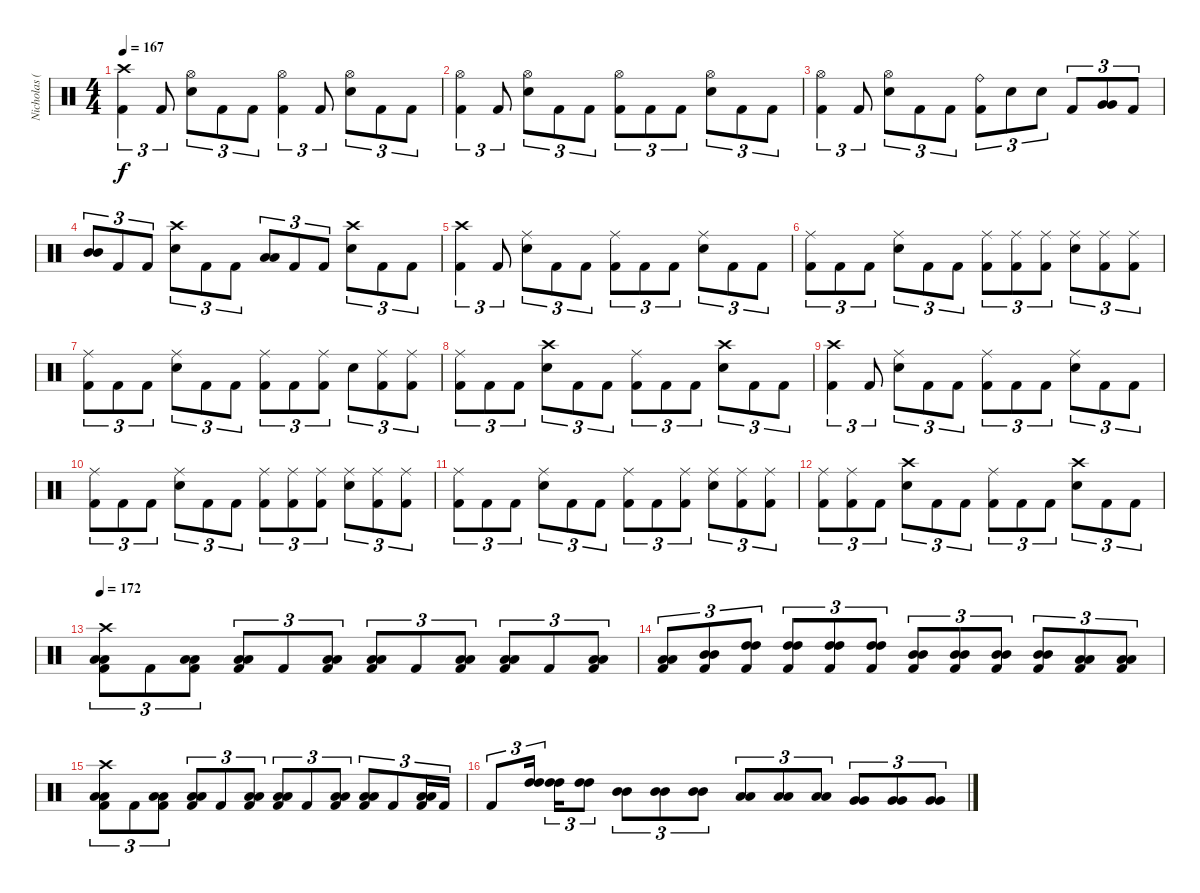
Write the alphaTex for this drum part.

\track ("Nicholas (Drums)" "Nicholas (") {instrument percussion}
\staff {score}
\articulation defaults
\ts (4 4)
\tempo 167
\clef neutral
\ks c
("Crash high (hit)" "Kick (hit) 2").4{tu (3 2) dy f} "Kick (hit) 2".8{tu (3 2)} ("Hi-Hat (open)" "Electric Snare (hit)").8{tu (3 2)} "Kick (hit) 2".8{tu (3 2)} "Kick (hit) 2".8{tu (3 2)} ("Hi-Hat (open)" "Kick (hit) 2").4{tu (3 2)} "Kick (hit) 2".8{tu (3 2)} ("Hi-Hat (open)" "Electric Snare (hit)").8{tu (3 2)} "Kick (hit) 2".8{tu (3 2)} "Kick (hit) 2".8{tu (3 2)} |
("Hi-Hat (open)" "Kick (hit) 2").4{tu (3 2)} "Kick (hit) 2".8{tu (3 2)} ("Hi-Hat (open)" "Electric Snare (hit)").8{tu (3 2)} "Kick (hit) 2".8{tu (3 2)} "Kick (hit) 2".8{tu (3 2)} ("Hi-Hat (open)" "Kick (hit) 2").8{tu (3 2)} "Kick (hit) 2".8{tu (3 2)} "Kick (hit) 2".8{tu (3 2)} ("Hi-Hat (open)" "Electric Snare (hit)").8{tu (3 2)} "Kick (hit) 2".8{tu (3 2)} "Kick (hit) 2".8{tu (3 2)} |
("Hi-Hat (open)" "Kick (hit) 2").4{tu (3 2)} "Kick (hit) 2".8{tu (3 2)} ("Hi-Hat (open)" "Electric Snare (hit)").8{tu (3 2)} "Kick (hit) 2".8{tu (3 2)} "Kick (hit) 2".8{tu (3 2)} ("Ride (bell)" "Kick (hit) 2").8{tu (3 2)} "Electric Snare (hit)".8{tu (3 2)} "Electric Snare (hit)".8{tu (3 2)} "Kick (hit) 2".8{tu (3 2)} ("Very Low Tom (hit)" "Very Low Tom (hit)").8{tu (3 2)} "Kick (hit) 2".8{tu (3 2)} |
("Mid Tom (hit)" "Mid Tom (hit)").8{tu (3 2)} "Kick (hit) 2".8{tu (3 2)} "Kick (hit) 2".8{tu (3 2)} ("Crash high (hit)" "Electric Snare (hit)").8{tu (3 2)} "Kick (hit) 2".8{tu (3 2)} "Kick (hit) 2".8{tu (3 2)} ("Low Tom (hit)" "Low Tom (hit)").8{tu (3 2)} "Kick (hit) 2".8{tu (3 2)} "Kick (hit) 2".8{tu (3 2)} ("Crash high (hit)" "Electric Snare (hit)").8{tu (3 2)} "Kick (hit) 2".8{tu (3 2)} "Kick (hit) 2".8{tu (3 2)} |
("Crash high (hit)" "Kick (hit) 2").4{tu (3 2)} "Kick (hit) 2".8{tu (3 2)} ("Ride (middle)" "Electric Snare (hit)").8{tu (3 2)} "Kick (hit) 2".8{tu (3 2)} "Kick (hit) 2".8{tu (3 2)} ("Ride (middle)" "Kick (hit) 2").8{tu (3 2)} "Kick (hit) 2".8{tu (3 2)} "Kick (hit) 2".8{tu (3 2)} ("Ride (middle)" "Electric Snare (hit)").8{tu (3 2)} "Kick (hit) 2".8{tu (3 2)} "Kick (hit) 2".8{tu (3 2)} |
("Ride (middle)" "Kick (hit) 2").8{tu (3 2)} "Kick (hit) 2".8{tu (3 2)} "Kick (hit) 2".8{tu (3 2)} ("Ride (middle)" "Electric Snare (hit)").8{tu (3 2)} "Kick (hit) 2".8{tu (3 2)} "Kick (hit) 2".8{tu (3 2)} ("Ride (middle)" "Kick (hit) 2").8{tu (3 2)} ("Ride (middle)" "Kick (hit) 2").8{tu (3 2)} ("Ride (middle)" "Kick (hit) 2").8{tu (3 2)} ("Ride (middle)" "Electric Snare (hit)").8{tu (3 2)} ("Ride (middle)" "Kick (hit) 2").8{tu (3 2)} ("Ride (middle)" "Kick (hit) 2").8{tu (3 2)} |
("Ride (middle)" "Kick (hit) 2").8{tu (3 2)} "Kick (hit) 2".8{tu (3 2)} "Kick (hit) 2".8{tu (3 2)} ("Ride (middle)" "Electric Snare (hit)").8{tu (3 2)} "Kick (hit) 2".8{tu (3 2)} "Kick (hit) 2".8{tu (3 2)} ("Ride (middle)" "Kick (hit) 2").8{tu (3 2)} "Kick (hit) 2".8{tu (3 2)} ("Ride (middle)" "Kick (hit) 2").8{tu (3 2)} "Electric Snare (hit)".8{tu (3 2)} ("Ride (middle)" "Kick (hit) 2").8{tu (3 2)} ("Ride (middle)" "Kick (hit) 2").8{tu (3 2)} |
("Ride (middle)" "Kick (hit) 2").8{tu (3 2)} "Kick (hit) 2".8{tu (3 2)} "Kick (hit) 2".8{tu (3 2)} ("Crash high (hit)" "Electric Snare (hit)").8{tu (3 2)} "Kick (hit) 2".8{tu (3 2)} "Kick (hit) 2".8{tu (3 2)} ("Ride (middle)" "Kick (hit) 2").8{tu (3 2)} "Kick (hit) 2".8{tu (3 2)} "Kick (hit) 2".8{tu (3 2)} ("Crash high (hit)" "Electric Snare (hit)").8{tu (3 2)} "Kick (hit) 2".8{tu (3 2)} "Kick (hit) 2".8{tu (3 2)} |
("Crash high (hit)" "Kick (hit) 2").4{tu (3 2)} "Kick (hit) 2".8{tu (3 2)} ("Ride (middle)" "Electric Snare (hit)").8{tu (3 2)} "Kick (hit) 2".8{tu (3 2)} "Kick (hit) 2".8{tu (3 2)} ("Ride (middle)" "Kick (hit) 2").8{tu (3 2)} "Kick (hit) 2".8{tu (3 2)} "Kick (hit) 2".8{tu (3 2)} ("Ride (middle)" "Electric Snare (hit)").8{tu (3 2)} "Kick (hit) 2".8{tu (3 2)} "Kick (hit) 2".8{tu (3 2)} |
("Ride (middle)" "Kick (hit) 2").8{tu (3 2)} "Kick (hit) 2".8{tu (3 2)} "Kick (hit) 2".8{tu (3 2)} ("Ride (middle)" "Electric Snare (hit)").8{tu (3 2)} "Kick (hit) 2".8{tu (3 2)} "Kick (hit) 2".8{tu (3 2)} ("Ride (middle)" "Kick (hit) 2").8{tu (3 2)} ("Ride (middle)" "Kick (hit) 2").8{tu (3 2)} ("Ride (middle)" "Kick (hit) 2").8{tu (3 2)} ("Ride (middle)" "Electric Snare (hit)").8{tu (3 2)} ("Ride (middle)" "Kick (hit) 2").8{tu (3 2)} ("Ride (middle)" "Kick (hit) 2").8{tu (3 2)} |
("Ride (middle)" "Kick (hit) 2").8{tu (3 2)} "Kick (hit) 2".8{tu (3 2)} "Kick (hit) 2".8{tu (3 2)} ("Ride (middle)" "Electric Snare (hit)").8{tu (3 2)} "Kick (hit) 2".8{tu (3 2)} "Kick (hit) 2".8{tu (3 2)} ("Ride (middle)" "Kick (hit) 2").8{tu (3 2)} "Kick (hit) 2".8{tu (3 2)} ("Ride (middle)" "Kick (hit) 2").8{tu (3 2)} ("Ride (middle)" "Electric Snare (hit)").8{tu (3 2)} ("Ride (middle)" "Kick (hit) 2").8{tu (3 2)} ("Ride (middle)" "Kick (hit) 2").8{tu (3 2)} |
("Ride (middle)" "Kick (hit) 2").8{tu (3 2)} ("Ride (middle)" "Kick (hit) 2").8{tu (3 2)} "Kick (hit) 2".8{tu (3 2)} ("Crash high (hit)" "Electric Snare (hit)").8{tu (3 2)} "Kick (hit) 2".8{tu (3 2)} "Kick (hit) 2".8{tu (3 2)} ("Ride (middle)" "Kick (hit) 2").8{tu (3 2)} "Kick (hit) 2".8{tu (3 2)} "Kick (hit) 2".8{tu (3 2)} ("Crash high (hit)" "Electric Snare (hit)").8{tu (3 2)} "Kick (hit) 2".8{tu (3 2)} "Kick (hit) 2".8{tu (3 2)} |
\tempo 172
("Crash high (hit)" "Low Tom (hit)" "Low Tom (hit)" "Kick (hit) 2").8{tu (3 2)} "Kick (hit) 2".8{tu (3 2)} ("Low Floor Tom (hit)" "Low Floor Tom (hit)" "Kick (hit) 2").8{tu (3 2)} ("Low Floor Tom (hit)" "Low Floor Tom (hit)" "Kick (hit) 2").8{tu (3 2)} "Kick (hit) 2".8{tu (3 2)} ("Low Tom (hit)" "Low Tom (hit)" "Kick (hit) 2").8{tu (3 2)} ("Low Tom (hit)" "Low Tom (hit)" "Kick (hit) 2").8{tu (3 2)} "Kick (hit) 2".8{tu (3 2)} ("Low Floor Tom (hit)" "Low Floor Tom (hit)" "Kick (hit) 2").8{tu (3 2)} ("Low Floor Tom (hit)" "Low Floor Tom (hit)" "Kick (hit) 2").8{tu (3 2)} "Kick (hit) 2".8{tu (3 2)} ("Low Tom (hit)" "Low Tom (hit)" "Kick (hit) 2").8{tu (3 2)} |
("Low Tom (hit)" "Low Tom (hit)" "Kick (hit) 2").8{tu (3 2)} ("Mid Tom (hit)" "Mid Tom (hit)" "Kick (hit) 2").8{tu (3 2)} ("High Tom (hit)" "High Tom (hit)" "Kick (hit) 2").8{tu (3 2)} ("High Tom (hit)" "High Tom (hit)" "Kick (hit) 2").8{tu (3 2)} ("High Tom (hit)" "High Tom (hit)" "Kick (hit) 2").8{tu (3 2)} ("High Tom (hit)" "High Tom (hit)" "Kick (hit) 2").8{tu (3 2)} ("Mid Tom (hit)" "Mid Tom (hit)" "Kick (hit) 2").8{tu (3 2)} ("Mid Tom (hit)" "Mid Tom (hit)" "Kick (hit) 2").8{tu (3 2)} ("Mid Tom (hit)" "Mid Tom (hit)" "Kick (hit) 2").8{tu (3 2)} ("Mid Tom (hit)" "Mid Tom (hit)" "Kick (hit) 2").8{tu (3 2)} ("Low Tom (hit)" "Low Tom (hit)" "Kick (hit) 2").8{tu (3 2)} ("Low Tom (hit)" "Low Tom (hit)" "Kick (hit) 2").8{tu (3 2)} |
("Crash high (hit)" "Low Tom (hit)" "Low Tom (hit)" "Kick (hit) 2").8{tu (3 2)} "Kick (hit) 2".8{tu (3 2)} ("Low Floor Tom (hit)" "Low Floor Tom (hit)" "Kick (hit) 2").8{tu (3 2)} ("Low Floor Tom (hit)" "Low Floor Tom (hit)" "Kick (hit) 2").8{tu (3 2)} "Kick (hit) 2".8{tu (3 2)} ("Low Tom (hit)" "Low Tom (hit)" "Kick (hit) 2").8{tu (3 2)} ("Low Tom (hit)" "Low Tom (hit)" "Kick (hit) 2").8{tu (3 2)} "Kick (hit) 2".8{tu (3 2)} ("Low Floor Tom (hit)" "Low Floor Tom (hit)" "Kick (hit) 2").8{tu (3 2)} ("Low Floor Tom (hit)" "Low Floor Tom (hit)" "Kick (hit) 2").8{tu (3 2)} "Kick (hit) 2".8{tu (3 2)} ("Low Tom (hit)" "Low Tom (hit)" "Kick (hit) 2").16{tu (3 2)} "Kick (hit) 2".16{tu (3 2)} |
"Kick (hit) 2".8{tu (3 2)} ("High Tom (hit)" "High Tom (hit)").16{tu (3 2) balance 0} ("High Tom (hit)" "High Tom (hit)").16{tu (3 2)} ("High Tom (hit)" "High Tom (hit)").8{tu (3 2)} ("Mid Tom (hit)" "Mid Tom (hit)").8{tu (3 2) balance 5} ("Mid Tom (hit)" "Mid Tom (hit)").8{tu (3 2)} ("Mid Tom (hit)" "Mid Tom (hit)").8{tu (3 2)} ("Low Tom (hit)" "Low Tom (hit)").8{tu (3 2) balance 11} ("Low Tom (hit)" "Low Tom (hit)").8{tu (3 2)} ("Low Tom (hit)" "Low Tom (hit)").8{tu (3 2)} ("Very Low Tom (hit)" "Very Low Tom (hit)").8{tu (3 2) balance 16} ("Very Low Tom (hit)" "Very Low Tom (hit)").8{tu (3 2)} ("Very Low Tom (hit)" "Very Low Tom (hit)").8{tu (3 2)}
